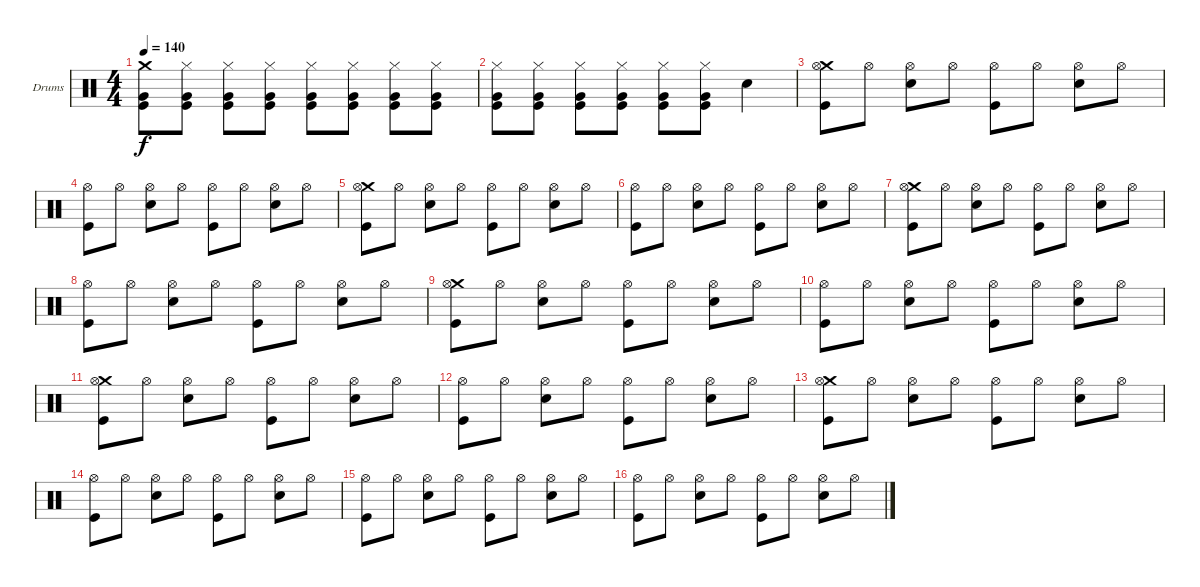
\bracketExtendMode groupsimilarinstruments
\firstSystemTrackNameOrientation horizontal
\otherSystemsTrackNameOrientation horizontal
\track ("Drumkit" "Drums") {instrument percussion}
\staff {score}
\articulation defaults
\ts (4 4)
\tempo 140
\clef neutral
\ks c
("Crash medium (hit)" "Kick (hit)" "Very Low Tom (hit)").8{dy f} ("Hi-Hat (closed)" "Kick (hit)" "Very Low Tom (hit)").8 ("Hi-Hat (closed)" "Kick (hit)" "Very Low Tom (hit)").8 ("Hi-Hat (closed)" "Kick (hit)" "Very Low Tom (hit)").8 ("Hi-Hat (closed)" "Kick (hit)" "Very Low Tom (hit)").8 ("Hi-Hat (closed)" "Kick (hit)" "Very Low Tom (hit)").8 ("Hi-Hat (closed)" "Kick (hit)" "Very Low Tom (hit)").8 ("Hi-Hat (closed)" "Kick (hit)" "Very Low Tom (hit)").8 |
("Hi-Hat (closed)" "Kick (hit)" "Very Low Tom (hit)").8 ("Hi-Hat (closed)" "Kick (hit)" "Very Low Tom (hit)").8 ("Hi-Hat (closed)" "Kick (hit)" "Very Low Tom (hit)").8 ("Hi-Hat (closed)" "Kick (hit)" "Very Low Tom (hit)").8 ("Hi-Hat (closed)" "Kick (hit)" "Very Low Tom (hit)").8 ("Hi-Hat (closed)" "Kick (hit)" "Very Low Tom (hit)").8 "Snare (hit) 2".4 |
("Crash medium (hit)" "Hi-Hat (open)" "Kick (hit)").8 "Hi-Hat (open)".8 ("Hi-Hat (open)" "Snare (hit) 2").8 "Hi-Hat (open)".8 ("Hi-Hat (open)" "Kick (hit)").8 "Hi-Hat (open)".8 ("Hi-Hat (open)" "Snare (hit) 2").8 "Hi-Hat (open)".8 |
("Hi-Hat (open)" "Kick (hit)").8 "Hi-Hat (open)".8 ("Hi-Hat (open)" "Snare (hit) 2").8 "Hi-Hat (open)".8 ("Hi-Hat (open)" "Kick (hit)").8 "Hi-Hat (open)".8 ("Hi-Hat (open)" "Snare (hit) 2").8 "Hi-Hat (open)".8 |
("Crash medium (hit)" "Hi-Hat (open)" "Kick (hit)").8 "Hi-Hat (open)".8 ("Hi-Hat (open)" "Snare (hit) 2").8 "Hi-Hat (open)".8 ("Hi-Hat (open)" "Kick (hit)").8 "Hi-Hat (open)".8 ("Hi-Hat (open)" "Snare (hit) 2").8 "Hi-Hat (open)".8 |
("Hi-Hat (open)" "Kick (hit)").8 "Hi-Hat (open)".8 ("Hi-Hat (open)" "Snare (hit) 2").8 "Hi-Hat (open)".8 ("Hi-Hat (open)" "Kick (hit)").8 "Hi-Hat (open)".8 ("Hi-Hat (open)" "Snare (hit) 2").8 "Hi-Hat (open)".8 |
("Crash medium (hit)" "Hi-Hat (open)" "Kick (hit)").8 "Hi-Hat (open)".8 ("Hi-Hat (open)" "Snare (hit) 2").8 "Hi-Hat (open)".8 ("Hi-Hat (open)" "Kick (hit)").8 "Hi-Hat (open)".8 ("Hi-Hat (open)" "Snare (hit) 2").8 "Hi-Hat (open)".8 |
("Hi-Hat (open)" "Kick (hit)").8 "Hi-Hat (open)".8 ("Hi-Hat (open)" "Snare (hit) 2").8 "Hi-Hat (open)".8 ("Hi-Hat (open)" "Kick (hit)").8 "Hi-Hat (open)".8 ("Hi-Hat (open)" "Snare (hit) 2").8 "Hi-Hat (open)".8 |
("Crash medium (hit)" "Hi-Hat (open)" "Kick (hit)").8 "Hi-Hat (open)".8 ("Hi-Hat (open)" "Snare (hit) 2").8 "Hi-Hat (open)".8 ("Hi-Hat (open)" "Kick (hit)").8 "Hi-Hat (open)".8 ("Hi-Hat (open)" "Snare (hit) 2").8 "Hi-Hat (open)".8 |
("Hi-Hat (open)" "Kick (hit)").8 "Hi-Hat (open)".8 ("Hi-Hat (open)" "Snare (hit) 2").8 "Hi-Hat (open)".8 ("Hi-Hat (open)" "Kick (hit)").8 "Hi-Hat (open)".8 ("Hi-Hat (open)" "Snare (hit) 2").8 "Hi-Hat (open)".8 |
("Crash medium (hit)" "Hi-Hat (open)" "Kick (hit)").8 "Hi-Hat (open)".8 ("Hi-Hat (open)" "Snare (hit) 2").8 "Hi-Hat (open)".8 ("Hi-Hat (open)" "Kick (hit)").8 "Hi-Hat (open)".8 ("Hi-Hat (open)" "Snare (hit) 2").8 "Hi-Hat (open)".8 |
("Hi-Hat (open)" "Kick (hit)").8 "Hi-Hat (open)".8 ("Hi-Hat (open)" "Snare (hit) 2").8 "Hi-Hat (open)".8 ("Hi-Hat (open)" "Kick (hit)").8 "Hi-Hat (open)".8 ("Hi-Hat (open)" "Snare (hit) 2").8 "Hi-Hat (open)".8 |
("Crash medium (hit)" "Hi-Hat (open)" "Kick (hit)").8 "Hi-Hat (open)".8 ("Hi-Hat (open)" "Snare (hit) 2").8 "Hi-Hat (open)".8 ("Hi-Hat (open)" "Kick (hit)").8 "Hi-Hat (open)".8 ("Hi-Hat (open)" "Snare (hit) 2").8 "Hi-Hat (open)".8 |
("Hi-Hat (open)" "Kick (hit)").8 "Hi-Hat (open)".8 ("Hi-Hat (open)" "Snare (hit) 2").8 "Hi-Hat (open)".8 ("Hi-Hat (open)" "Kick (hit)").8 "Hi-Hat (open)".8 ("Hi-Hat (open)" "Snare (hit) 2").8 "Hi-Hat (open)".8 |
("Hi-Hat (open)" "Kick (hit)").8 "Hi-Hat (open)".8 ("Hi-Hat (open)" "Snare (hit) 2").8 "Hi-Hat (open)".8 ("Hi-Hat (open)" "Kick (hit)").8 "Hi-Hat (open)".8 ("Hi-Hat (open)" "Snare (hit) 2").8 "Hi-Hat (open)".8 |
("Hi-Hat (open)" "Kick (hit)").8 "Hi-Hat (open)".8 ("Hi-Hat (open)" "Snare (hit) 2").8 "Hi-Hat (open)".8 ("Hi-Hat (open)" "Kick (hit)").8 "Hi-Hat (open)".8 ("Hi-Hat (open)" "Snare (hit) 2").8 "Hi-Hat (open)".8
